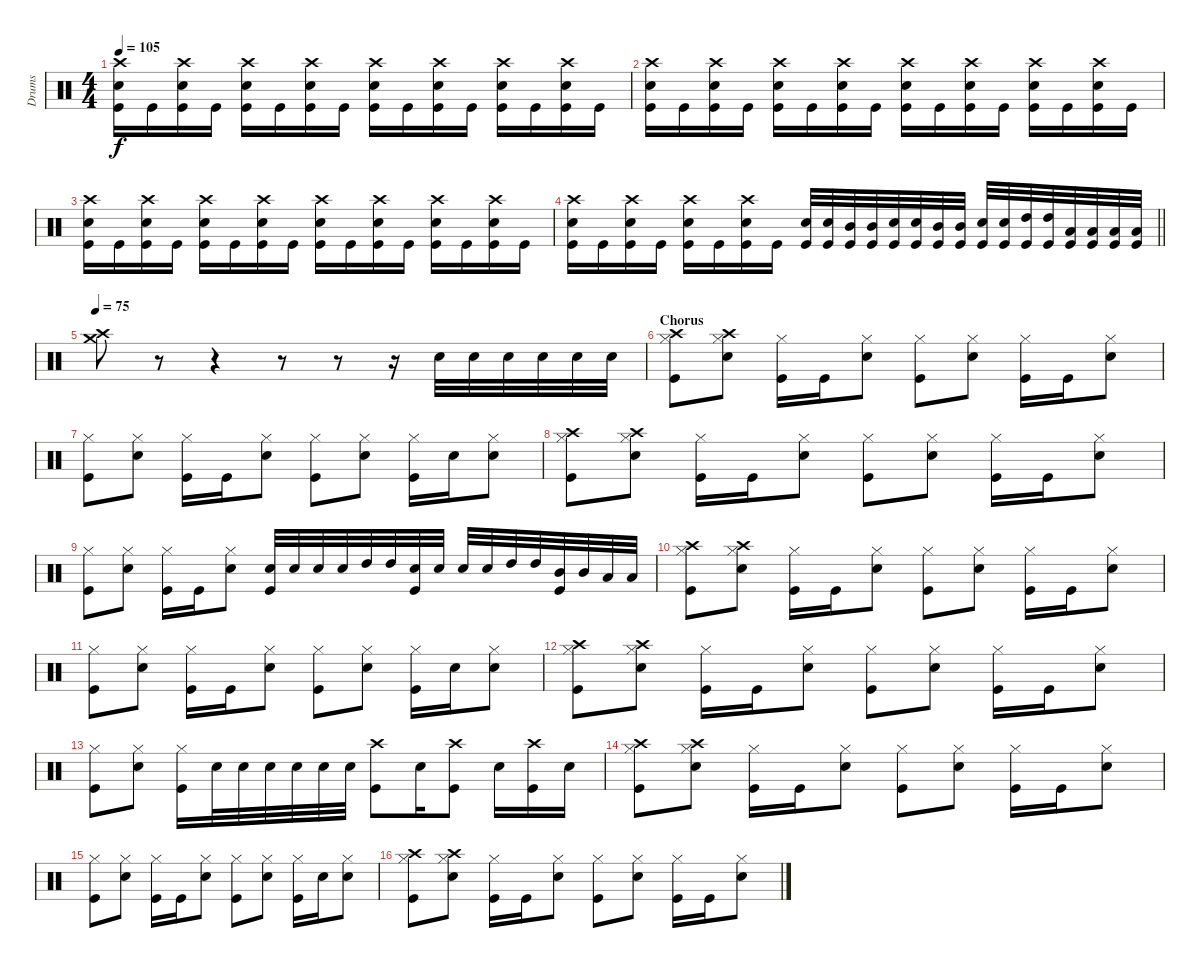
\track ("Drums" "Drums") {instrument percussion}
\staff {score}
\articulation defaults
\ts (4 4)
\tempo 105
\clef neutral
\ks c
("Crash high (hit)" "Snare (hit) 2" "Kick (hit)").16{dy f} "Kick (hit)".16 ("Crash high (hit)" "Snare (hit) 2" "Kick (hit)").16 "Kick (hit)".16 ("Crash high (hit)" "Snare (hit) 2" "Kick (hit)").16 "Kick (hit)".16 ("Crash high (hit)" "Snare (hit) 2" "Kick (hit)").16 "Kick (hit)".16 ("Crash high (hit)" "Snare (hit) 2" "Kick (hit)").16 "Kick (hit)".16 ("Crash high (hit)" "Snare (hit) 2" "Kick (hit)").16 "Kick (hit)".16 ("Crash high (hit)" "Snare (hit) 2" "Kick (hit)").16 "Kick (hit)".16 ("Crash high (hit)" "Snare (hit) 2" "Kick (hit)").16 "Kick (hit)".16 |
("Crash high (hit)" "Snare (hit) 2" "Kick (hit)").16 "Kick (hit)".16 ("Crash high (hit)" "Snare (hit) 2" "Kick (hit)").16 "Kick (hit)".16 ("Crash high (hit)" "Snare (hit) 2" "Kick (hit)").16 "Kick (hit)".16 ("Crash high (hit)" "Snare (hit) 2" "Kick (hit)").16 "Kick (hit)".16 ("Crash high (hit)" "Snare (hit) 2" "Kick (hit)").16 "Kick (hit)".16 ("Crash high (hit)" "Snare (hit) 2" "Kick (hit)").16 "Kick (hit)".16 ("Crash high (hit)" "Snare (hit) 2" "Kick (hit)").16 "Kick (hit)".16 ("Crash high (hit)" "Snare (hit) 2" "Kick (hit)").16 "Kick (hit)".16 |
("Crash high (hit)" "Snare (hit) 2" "Kick (hit)").16 "Kick (hit)".16 ("Crash high (hit)" "Snare (hit) 2" "Kick (hit)").16 "Kick (hit)".16 ("Crash high (hit)" "Snare (hit) 2" "Kick (hit)").16 "Kick (hit)".16 ("Crash high (hit)" "Snare (hit) 2" "Kick (hit)").16 "Kick (hit)".16 ("Crash high (hit)" "Snare (hit) 2" "Kick (hit)").16 "Kick (hit)".16 ("Crash high (hit)" "Snare (hit) 2" "Kick (hit)").16 "Kick (hit)".16 ("Crash high (hit)" "Snare (hit) 2" "Kick (hit)").16 "Kick (hit)".16 ("Crash high (hit)" "Snare (hit) 2" "Kick (hit)").16 "Kick (hit)".16 |
\barLineRight lightlight
("Crash high (hit)" "Snare (hit) 2" "Kick (hit)").16 "Kick (hit)".16 ("Crash high (hit)" "Snare (hit) 2" "Kick (hit)").16 "Kick (hit)".16 ("Crash high (hit)" "Snare (hit) 2" "Kick (hit)").16 "Kick (hit)".16 ("Crash high (hit)" "Snare (hit) 2" "Kick (hit)").16 "Kick (hit)".16 ("Snare (hit) 2" "Kick (hit)").32 ("Snare (hit) 2" "Kick (hit)").32 ("Mid Tom (hit)" "Kick (hit)").32 ("Mid Tom (hit)" "Kick (hit)").32 ("Snare (hit) 2" "Kick (hit)").32 ("Snare (hit) 2" "Kick (hit)").32 ("Mid Tom (hit)" "Kick (hit)").32 ("Mid Tom (hit)" "Kick (hit)").32 ("Snare (hit) 2" "Kick (hit)").32 ("Snare (hit) 2" "Kick (hit)").32 ("High Tom (hit)" "Kick (hit)").32 ("High Tom (hit)" "Kick (hit)").32 ("Low Tom (hit)" "Kick (hit)").32 ("Low Tom (hit)" "Kick (hit)").32 ("Low Floor Tom (hit)" "Kick (hit)").32 ("Low Floor Tom (hit)" "Kick (hit)").32 |
\tempo 75
("Crash medium (hit)" "Crash high (hit)").8 r.8 r.4 r.8 r.8 r.16 "Snare (hit) 2".32 "Snare (hit) 2".32 "Snare (hit) 2".32 "Snare (hit) 2".32 "Snare (hit) 2".32 "Snare (hit) 2".32 |
\section ("" "Chorus")
("Crash high (hit)" "Hi-Hat (closed)" "Kick (hit)").8 ("Crash high (hit)" "Hi-Hat (closed)" "Snare (hit) 2").8 ("Hi-Hat (closed)" "Kick (hit)").16 "Kick (hit)".16 ("Hi-Hat (closed)" "Snare (hit) 2").8 ("Hi-Hat (closed)" "Kick (hit)").8 ("Hi-Hat (closed)" "Snare (hit) 2").8 ("Hi-Hat (closed)" "Kick (hit)").16 "Kick (hit)".16 ("Hi-Hat (closed)" "Snare (hit) 2").8 |
("Hi-Hat (closed)" "Kick (hit)").8 ("Hi-Hat (closed)" "Snare (hit) 2").8 ("Hi-Hat (closed)" "Kick (hit)").16 "Kick (hit)".16 ("Hi-Hat (closed)" "Snare (hit) 2").8 ("Hi-Hat (closed)" "Kick (hit)").8 ("Hi-Hat (closed)" "Snare (hit) 2").8 ("Hi-Hat (closed)" "Kick (hit)").16 "Snare (hit) 2".16 ("Hi-Hat (closed)" "Snare (hit) 2").8 |
("Crash high (hit)" "Hi-Hat (closed)" "Kick (hit)").8 ("Crash high (hit)" "Hi-Hat (closed)" "Snare (hit) 2").8 ("Hi-Hat (closed)" "Kick (hit)").16 "Kick (hit)".16 ("Hi-Hat (closed)" "Snare (hit) 2").8 ("Hi-Hat (closed)" "Kick (hit)").8 ("Hi-Hat (closed)" "Snare (hit) 2").8 ("Hi-Hat (closed)" "Kick (hit)").16 "Kick (hit)".16 ("Hi-Hat (closed)" "Snare (hit) 2").8 |
("Hi-Hat (closed)" "Kick (hit)").8 ("Hi-Hat (closed)" "Snare (hit) 2").8 ("Hi-Hat (closed)" "Kick (hit)").16 "Kick (hit)".16 ("Hi-Hat (closed)" "Snare (hit) 2").8 ("Snare (hit) 2" "Kick (hit)").32 "Snare (hit) 2".32 "Snare (hit) 2".32 "Snare (hit) 2".32 "High Tom (hit)".32 "High Tom (hit)".32 ("Snare (hit) 2" "Kick (hit)").32 "Snare (hit) 2".32 "Snare (hit) 2".32 "Snare (hit) 2".32 "High Tom (hit)".32 "High Tom (hit)".32 ("Mid Tom (hit)" "Kick (hit)").32 "Mid Tom (hit)".32 "Low Floor Tom (hit)".32 "Low Floor Tom (hit)".32 |
("Crash high (hit)" "Hi-Hat (closed)" "Kick (hit)").8 ("Crash high (hit)" "Hi-Hat (closed)" "Snare (hit) 2").8 ("Hi-Hat (closed)" "Kick (hit)").16 "Kick (hit)".16 ("Hi-Hat (closed)" "Snare (hit) 2").8 ("Hi-Hat (closed)" "Kick (hit)").8 ("Hi-Hat (closed)" "Snare (hit) 2").8 ("Hi-Hat (closed)" "Kick (hit)").16 "Kick (hit)".16 ("Hi-Hat (closed)" "Snare (hit) 2").8 |
("Hi-Hat (closed)" "Kick (hit)").8 ("Hi-Hat (closed)" "Snare (hit) 2").8 ("Hi-Hat (closed)" "Kick (hit)").16 "Kick (hit)".16 ("Hi-Hat (closed)" "Snare (hit) 2").8 ("Hi-Hat (closed)" "Kick (hit)").8 ("Hi-Hat (closed)" "Snare (hit) 2").8 ("Hi-Hat (closed)" "Kick (hit)").16 "Snare (hit) 2".16 ("Hi-Hat (closed)" "Snare (hit) 2").8 |
("Crash high (hit)" "Hi-Hat (closed)" "Kick (hit)").8 ("Crash high (hit)" "Hi-Hat (closed)" "Snare (hit) 2").8 ("Hi-Hat (closed)" "Kick (hit)").16 "Kick (hit)".16 ("Hi-Hat (closed)" "Snare (hit) 2").8 ("Hi-Hat (closed)" "Kick (hit)").8 ("Hi-Hat (closed)" "Snare (hit) 2").8 ("Hi-Hat (closed)" "Kick (hit)").16 "Kick (hit)".16 ("Hi-Hat (closed)" "Snare (hit) 2").8 |
("Hi-Hat (closed)" "Kick (hit)").8 ("Hi-Hat (closed)" "Snare (hit) 2").8 ("Hi-Hat (closed)" "Kick (hit)").16 "Snare (hit) 2".32 "Snare (hit) 2".32 "Snare (hit) 2".32 "Snare (hit) 2".32 "Snare (hit) 2".32 "Snare (hit) 2".32 ("Crash high (hit)" "Kick (hit)").8 "Snare (hit) 2".16 ("Crash high (hit)" "Kick (hit)").8 "Snare (hit) 2".16 ("Crash high (hit)" "Kick (hit)").16 "Snare (hit) 2".16 |
("Crash high (hit)" "Hi-Hat (closed)" "Kick (hit)").8 ("Crash high (hit)" "Hi-Hat (closed)" "Snare (hit) 2").8 ("Hi-Hat (closed)" "Kick (hit)").16 "Kick (hit)".16 ("Hi-Hat (closed)" "Snare (hit) 2").8 ("Hi-Hat (closed)" "Kick (hit)").8 ("Hi-Hat (closed)" "Snare (hit) 2").8 ("Hi-Hat (closed)" "Kick (hit)").16 "Kick (hit)".16 ("Hi-Hat (closed)" "Snare (hit) 2").8 |
("Hi-Hat (closed)" "Kick (hit)").8 ("Hi-Hat (closed)" "Snare (hit) 2").8 ("Hi-Hat (closed)" "Kick (hit)").16 "Kick (hit)".16 ("Hi-Hat (closed)" "Snare (hit) 2").8 ("Hi-Hat (closed)" "Kick (hit)").8 ("Hi-Hat (closed)" "Snare (hit) 2").8 ("Hi-Hat (closed)" "Kick (hit)").16 "Snare (hit) 2".16 ("Hi-Hat (closed)" "Snare (hit) 2").8 |
("Crash high (hit)" "Hi-Hat (closed)" "Kick (hit)").8 ("Crash high (hit)" "Hi-Hat (closed)" "Snare (hit) 2").8 ("Hi-Hat (closed)" "Kick (hit)").16 "Kick (hit)".16 ("Hi-Hat (closed)" "Snare (hit) 2").8 ("Hi-Hat (closed)" "Kick (hit)").8 ("Hi-Hat (closed)" "Snare (hit) 2").8 ("Hi-Hat (closed)" "Kick (hit)").16 "Kick (hit)".16 ("Hi-Hat (closed)" "Snare (hit) 2").8
